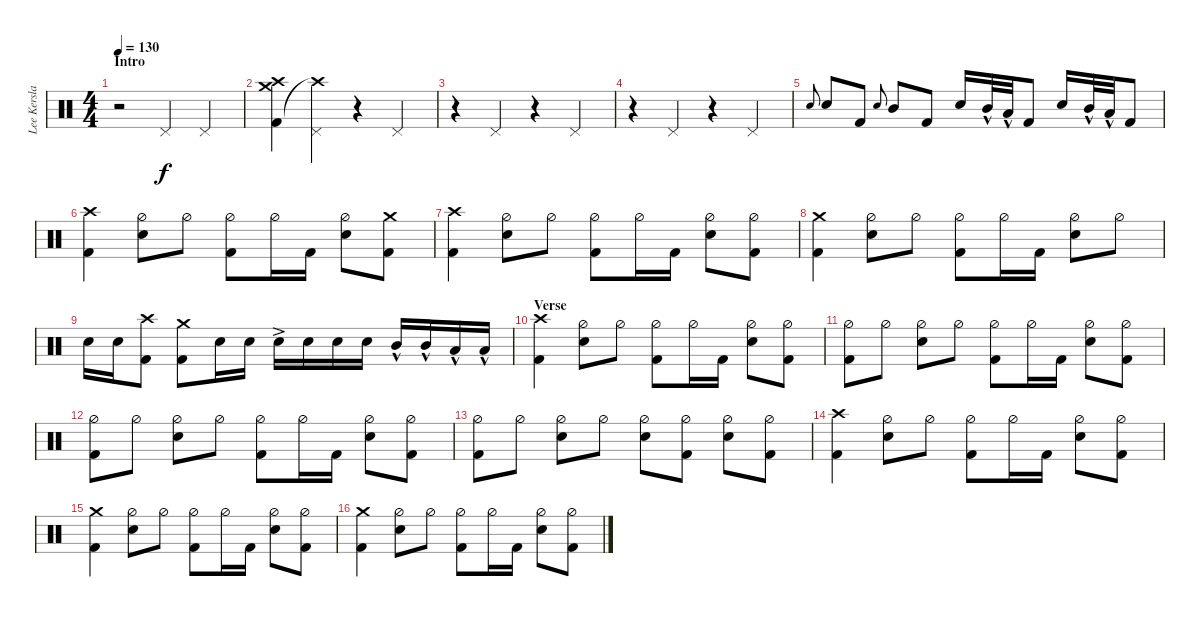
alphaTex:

\track ("Lee Kerslake" "Lee Kersla") {instrument percussion}
\staff {score}
\articulation defaults
\ts (4 4)
\section ("" "Intro")
\tempo 130
\clef neutral
\ks c
r.2{dy f} "Pedal Hi-Hat (hit)".4 "Pedal Hi-Hat (hit)".4 |
("Crash medium (hit)" "Kick (hit) 2" "Crash high (hit)").4 ("Pedal Hi-Hat (hit)" "Crash high (hit)"{t}).4 r.4 "Pedal Hi-Hat (hit)".4 |
r.4 "Pedal Hi-Hat (hit)".4 r.4 "Pedal Hi-Hat (hit)".4 |
r.4 "Pedal Hi-Hat (hit)".4 r.4 "Pedal Hi-Hat (hit)".4 |
"Snare (hit)".8{gr onbeat} "Snare (hit) 2".8 "Kick (hit) 2".8 "Snare (hit)".8{gr onbeat} "Mid Tom (hit)".8 "Kick (hit) 2".8 "Snare (hit) 2".16 "Mid Tom (hit)"{hac}.32 "Low Tom (hit)"{hac}.32 "Kick (hit) 2".8 "Snare (hit) 2".16 "Mid Tom (hit)"{hac}.32 "Low Tom (hit)"{hac}.32 "Kick (hit) 2".8 |
("Kick (hit) 2" "Crash high (hit)").4 ("Snare (hit) 2" "Hi-Hat (half)").8 "Hi-Hat (half)".8 ("Kick (hit) 2" "Hi-Hat (half)").8 "Hi-Hat (half)".16 "Kick (hit) 2".16 ("Snare (hit) 2" "Hi-Hat (half)").8 ("Kick (hit) 2" "Crash medium (hit)").8 |
("Kick (hit) 2" "Crash high (hit)").4 ("Snare (hit) 2" "Hi-Hat (half)").8 "Hi-Hat (half)".8 ("Kick (hit) 2" "Hi-Hat (half)").8 "Hi-Hat (half)".16 "Kick (hit) 2".16 ("Snare (hit) 2" "Hi-Hat (half)").8 ("Kick (hit) 2" "Hi-Hat (half)").8 |
("Kick (hit) 2" "Crash medium (hit)").4 ("Snare (hit) 2" "Hi-Hat (half)").8 "Hi-Hat (half)".8 ("Kick (hit) 2" "Hi-Hat (half)").8 "Hi-Hat (half)".16 "Kick (hit) 2".16 ("Snare (hit) 2" "Hi-Hat (half)").8 "Hi-Hat (half)".8 |
"Snare (hit) 2".16 "Snare (hit) 2".16 ("Kick (hit) 2" "Crash high (hit)").8 ("Kick (hit) 2" "Crash medium (hit)").8 "Snare (hit) 2".16 "Snare (hit) 2".16 "Snare (hit) 2"{ac}.16 "Snare (hit) 2".16 "Snare (hit) 2".16 "Snare (hit) 2".16 "Mid Tom (hit)"{hac}.16 "Mid Tom (hit)"{hac}.16 "Low Tom (hit)"{hac}.16 "Low Tom (hit)"{hac}.16 |
\section ("" "Verse")
("Kick (hit) 2" "Crash high (hit)").4 ("Snare (hit) 2" "Hi-Hat (half)").8 "Hi-Hat (half)".8 ("Kick (hit) 2" "Hi-Hat (half)").8 "Hi-Hat (half)".16 "Kick (hit) 2".16 ("Snare (hit) 2" "Hi-Hat (half)").8 ("Kick (hit) 2" "Hi-Hat (half)").8 |
("Kick (hit) 2" "Hi-Hat (half)").8 "Hi-Hat (half)".8 ("Snare (hit) 2" "Hi-Hat (half)").8 "Hi-Hat (half)".8 ("Kick (hit) 2" "Hi-Hat (half)").8 "Hi-Hat (half)".16 "Kick (hit) 2".16 ("Snare (hit) 2" "Hi-Hat (half)").8 ("Kick (hit) 2" "Hi-Hat (half)").8 |
("Kick (hit) 2" "Hi-Hat (half)").8 "Hi-Hat (half)".8 ("Snare (hit) 2" "Hi-Hat (half)").8 "Hi-Hat (half)".8 ("Kick (hit) 2" "Hi-Hat (half)").8 "Hi-Hat (half)".16 "Kick (hit) 2".16 ("Snare (hit) 2" "Hi-Hat (half)").8 ("Kick (hit) 2" "Hi-Hat (half)").8 |
("Kick (hit) 2" "Hi-Hat (half)").8 "Hi-Hat (half)".8 ("Snare (hit) 2" "Hi-Hat (half)").8 "Hi-Hat (half)".8 ("Snare (hit) 2" "Hi-Hat (half)").8 ("Kick (hit) 2" "Hi-Hat (half)").8 ("Snare (hit) 2" "Hi-Hat (half)").8 ("Kick (hit) 2" "Hi-Hat (half)").8 |
("Kick (hit) 2" "Crash high (hit)").4 ("Snare (hit) 2" "Hi-Hat (half)").8 "Hi-Hat (half)".8 ("Kick (hit) 2" "Hi-Hat (half)").8 "Hi-Hat (half)".16 "Kick (hit) 2".16 ("Snare (hit) 2" "Hi-Hat (half)").8 ("Kick (hit) 2" "Hi-Hat (half)").8 |
("Kick (hit) 2" "Crash medium (hit)").4 ("Snare (hit) 2" "Hi-Hat (half)").8 "Hi-Hat (half)".8 ("Kick (hit) 2" "Hi-Hat (half)").8 "Hi-Hat (half)".16 "Kick (hit) 2".16 ("Snare (hit) 2" "Hi-Hat (half)").8 ("Kick (hit) 2" "Hi-Hat (half)").8 |
("Kick (hit) 2" "Crash medium (hit)").4 ("Snare (hit) 2" "Hi-Hat (half)").8 "Hi-Hat (half)".8 ("Kick (hit) 2" "Hi-Hat (half)").8 "Hi-Hat (half)".16 "Kick (hit) 2".16 ("Snare (hit) 2" "Hi-Hat (half)").8 ("Kick (hit) 2" "Hi-Hat (half)").8
